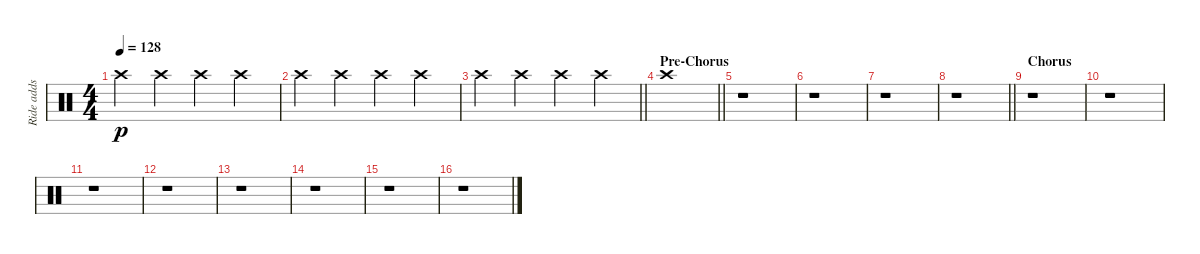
\track ("Ride adds" "Ride adds") {instrument percussion}
\staff {score}
\articulation defaults
\ts (4 4)
\tempo 128
\clef neutral
\ks c "Crash high (hit)".4{dy p} "Crash high (hit)".4 "Crash high (hit)".4 "Crash high (hit)".4
|
"Crash high (hit)".4 "Crash high (hit)".4 "Crash high (hit)".4 "Crash high (hit)".4 |
\barLineRight lightlight "Crash high (hit)".4 "Crash high (hit)".4 "Crash high (hit)".4 "Crash high (hit)".4
|
\section ("" "Pre-Chorus")
\barLineRight lightlight "Crash high (hit)".1
|
r.1 |
r.1 |
r.1 |
\barLineRight lightlight
r.1 |
\section ("" "Chorus")
r.1 |
r.1 |
r.1 |
r.1 |
r.1 |
r.1 |
r.1 |
r.1
